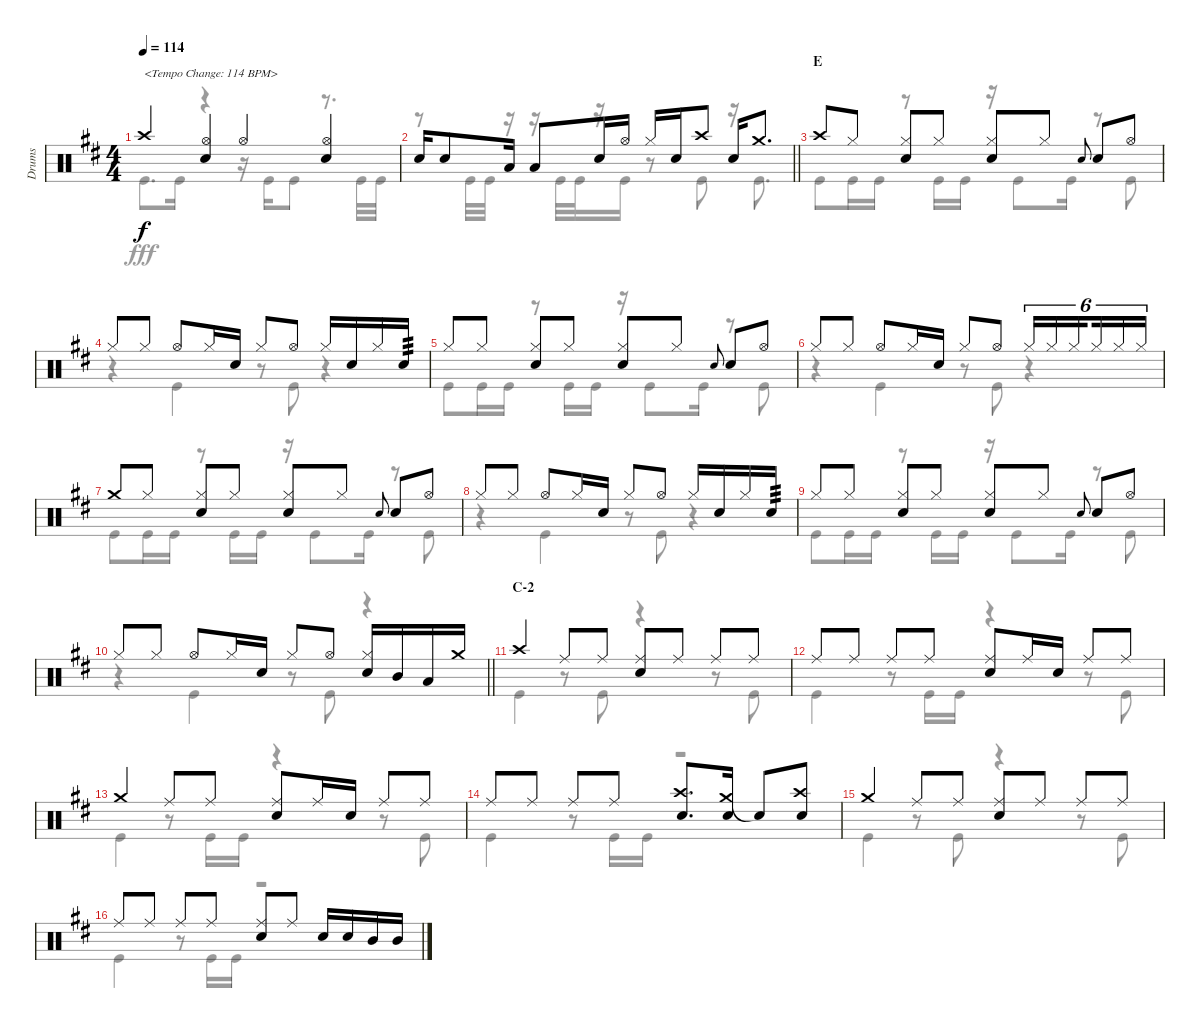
\track ("Drums" "Drums") {instrument percussion}
\staff {score}
\articulation defaults
\voice
\ts (4 4)
\tempo 114
\clef neutral
\ks d "Crash high (hit)".4{txt "<Tempo Change: 114 BPM>" dy f}
("Hi-Hat (open)" "Snare (hit) 2").4 "Hi-Hat (open)".4 ("Hi-Hat (open)" "Snare (hit) 2").4 |
\barLineRight lightlight "Snare (hit) 2".16 "Snare (hit) 2".8 "Low Tom (hit)".16 "Low Tom (hit)".8 "Snare (hit) 2".16 "Hi-Hat (open)".16 "Hi-Hat (closed)".16 "Snare (hit) 2".16 "Crash high (hit)".8 "Snare (hit) 2".16 "Crash medium (hit)".8{d}
|
\section ("" "E")
"Crash high (hit)".8 "Hi-Hat (closed)".8 ("Hi-Hat (closed)" "Snare (hit) 2").8 "Hi-Hat (closed)".8 ("Hi-Hat (closed)" "Snare (hit) 2").8 "Hi-Hat (closed)".8 "Snare (hit) 2".8{gr onbeat} "Snare (hit) 2".8 "Hi-Hat (open)".8 |
"Hi-Hat (closed)".8 "Hi-Hat (closed)".8 "Hi-Hat (open)".8 "Hi-Hat (closed)".16 "Snare (hit) 2".16 "Hi-Hat (closed)".8 "Hi-Hat (open)".8 "Hi-Hat (closed)".16 "Snare (hit) 2".16 "Hi-Hat (closed)".16 "Snare (hit) 2".16{tp 3} |
"Hi-Hat (closed)".8 "Hi-Hat (closed)".8 ("Hi-Hat (closed)" "Snare (hit) 2").8 "Hi-Hat (closed)".8 ("Hi-Hat (closed)" "Snare (hit) 2").8 "Hi-Hat (closed)".8 "Snare (hit) 2".8{gr onbeat} "Snare (hit) 2".8 "Hi-Hat (open)".8 |
"Hi-Hat (closed)".8 "Hi-Hat (closed)".8 "Hi-Hat (open)".8 "Hi-Hat (closed)".16 "Snare (hit) 2".16 "Hi-Hat (closed)".8 "Hi-Hat (open)".8 "Hi-Hat (closed)".16{tu (6 4)} "Hi-Hat (closed)".16{tu (6 4)} "Hi-Hat (closed)".16{tu (6 4) beam splitsecondary} "Hi-Hat (closed)".16{tu (6 4)} "Hi-Hat (closed)".16{tu (6 4)} "Hi-Hat (closed)".16{tu (6 4)} |
"Crash medium (hit)".8 "Hi-Hat (closed)".8 ("Hi-Hat (closed)" "Snare (hit) 2").8 "Hi-Hat (closed)".8 ("Hi-Hat (closed)" "Snare (hit) 2").8 "Hi-Hat (closed)".8 "Snare (hit) 2".8{gr onbeat} "Snare (hit) 2".8 "Hi-Hat (open)".8 |
"Hi-Hat (closed)".8 "Hi-Hat (closed)".8 "Hi-Hat (open)".8 "Hi-Hat (closed)".16 "Snare (hit) 2".16 "Hi-Hat (closed)".8 "Hi-Hat (open)".8 "Hi-Hat (closed)".16 "Snare (hit) 2".16 "Hi-Hat (closed)".16 "Snare (hit) 2".16{tp 3} |
"Hi-Hat (closed)".8 "Hi-Hat (closed)".8 ("Hi-Hat (closed)" "Snare (hit) 2").8 "Hi-Hat (closed)".8 ("Hi-Hat (closed)" "Snare (hit) 2").8 "Hi-Hat (closed)".8 "Snare (hit) 2".8{gr onbeat} "Snare (hit) 2".8 "Hi-Hat (open)".8 |
\barLineRight lightlight "Hi-Hat (closed)".8 "Hi-Hat (closed)".8 "Hi-Hat (open)".8 "Hi-Hat (closed)".16 "Snare (hit) 2".16 "Hi-Hat (closed)".8 "Hi-Hat (open)".8
("Hi-Hat (closed)" "Snare (hit) 2").16 "Mid Tom (hit)".16 "Low Tom (hit)".16 "Crash medium (hit)".16 |
\section ("" "C-2")
"Crash high (hit)".4 "Ride (middle)".8 "Ride (middle)".8 ("Ride (middle)" "Snare (hit) 2").8 "Ride (middle)".8 "Ride (middle)".8 "Ride (middle)".8 |
"Ride (middle)".8 "Ride (middle)".8 "Ride (middle)".8 "Ride (middle)".8 ("Ride (middle)" "Snare (hit) 2").8 "Ride (middle)".16 "Snare (hit) 2".16 "Ride (middle)".8 "Ride (middle)".8 |
"Crash medium (hit)".4 "Ride (middle)".8 "Ride (middle)".8 ("Ride (middle)" "Snare (hit) 2").8 "Ride (middle)".16 "Snare (hit) 2".16 "Ride (middle)".8 "Ride (middle)".8 |
"Ride (middle)".8 "Ride (middle)".8 "Ride (middle)".8 "Ride (middle)".8 ("Crash high (hit)" "Snare (hit) 2").8{d} ("Crash medium (hit)" "Snare (hit) 2").16 "Snare (hit)"{t}.8 ("Crash high (hit)" "Snare (hit) 2").8 |
"Crash medium (hit)".4 "Ride (middle)".8 "Ride (middle)".8 ("Ride (middle)" "Snare (hit) 2").8 "Ride (middle)".8 "Ride (middle)".8 "Ride (middle)".8 |
"Ride (middle)".8 "Ride (middle)".8 "Ride (middle)".8 "Ride (middle)".8 ("Ride (middle)" "Snare (hit) 2").8 "Ride (middle)".8 "Snare (hit) 2".16 "Snare (hit) 2".16 "Mid Tom (hit)".16 "Mid Tom (hit)".16
\voice
\clef neutral
\ottava regular
\simile none
\ks d "Kick (hit)".8{d dy fff} "Kick (hit)".16
r.4 r.16 "Kick (hit)".16 "Kick (hit)".8 r.8{d} "Kick (hit)".32 "Kick (hit)".32 |
\barLineRight lightlight
r.8 "Kick (hit)".32 "Kick (hit)".32 r.16 r.16 "Kick (hit)".32 "Kick (hit)".32 r.16 "Kick (hit)".16 r.8 "Kick (hit)".8 r.16 "Kick (hit)".8{d} |
"Kick (hit)".8 "Kick (hit)".16 "Kick (hit)".16 r.8 "Kick (hit)".16 "Kick (hit)".16 r.16 "Kick (hit)".8 "Kick (hit)".16 r.8 "Kick (hit)".8 |
r.4 "Kick (hit)".4 r.8 "Kick (hit)".8 r.4 |
"Kick (hit)".8 "Kick (hit)".16 "Kick (hit)".16 r.8 "Kick (hit)".16 "Kick (hit)".16 r.16 "Kick (hit)".8 "Kick (hit)".16 r.8 "Kick (hit)".8 |
r.4 "Kick (hit)".4 r.8 "Kick (hit)".8 r.4 |
"Kick (hit)".8 "Kick (hit)".16 "Kick (hit)".16 r.8 "Kick (hit)".16 "Kick (hit)".16 r.16 "Kick (hit)".8 "Kick (hit)".16 r.8 "Kick (hit)".8 |
r.4 "Kick (hit)".4 r.8 "Kick (hit)".8 r.4 |
"Kick (hit)".8 "Kick (hit)".16 "Kick (hit)".16 r.8 "Kick (hit)".16 "Kick (hit)".16 r.16 "Kick (hit)".8 "Kick (hit)".16 r.8 "Kick (hit)".8 |
\barLineRight lightlight
r.4 "Kick (hit)".4 r.8 "Kick (hit)".8 r.4 |
"Kick (hit)".4 r.8 "Kick (hit)".8 r.4 r.8 "Kick (hit)".8 |
"Kick (hit)".4 r.8 "Kick (hit)".16 "Kick (hit)".16 r.4 r.8 "Kick (hit)".8 |
"Kick (hit)".4 r.8 "Kick (hit)".16 "Kick (hit)".16 r.4 r.8 "Kick (hit)".8 |
"Kick (hit)".4 r.8 "Kick (hit)".16 "Kick (hit)".16 r.2 |
"Kick (hit)".4 r.8 "Kick (hit)".8 r.4 r.8 "Kick (hit)".8 |
"Kick (hit)".4 r.8 "Kick (hit)".16 "Kick (hit)".16 r.2
